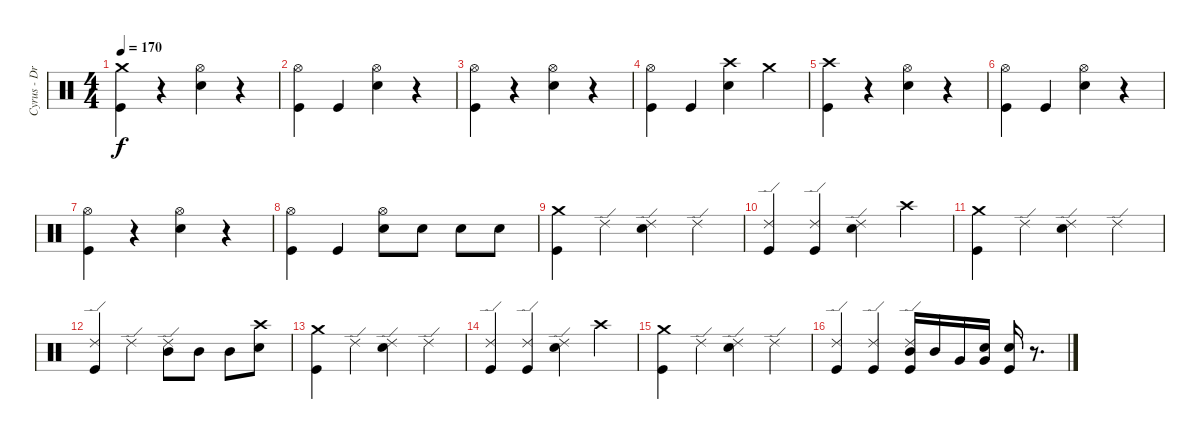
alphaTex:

\track ("Cyrus - Drums" "Cyrus - Dr") {instrument percussion}
\staff {score}
\articulation defaults
\ts (4 4)
\tempo 170
\clef neutral
\ks c
("Crash medium (hit)" "Kick (hit)").4{dy f} r.4 ("Hi-Hat (open)" "Electric Snare (hit)").4 r.4 |
("Hi-Hat (open)" "Kick (hit)").4 "Kick (hit)".4 ("Hi-Hat (open)" "Electric Snare (hit)").4 r.4 |
("Hi-Hat (open)" "Kick (hit)").4 r.4 ("Hi-Hat (open)" "Electric Snare (hit)").4 r.4 |
("Hi-Hat (open)" "Kick (hit)").4 "Kick (hit)".4 ("Crash high (hit)" "Electric Snare (hit)").4 "Crash medium (hit)".4 |
("Crash high (hit)" "Kick (hit)").4 r.4 ("Hi-Hat (open)" "Electric Snare (hit)").4 r.4 |
("Hi-Hat (open)" "Kick (hit)").4 "Kick (hit)".4 ("Hi-Hat (open)" "Electric Snare (hit)").4 r.4 |
("Hi-Hat (open)" "Kick (hit)").4 r.4 ("Hi-Hat (open)" "Electric Snare (hit)").4 r.4 |
("Hi-Hat (open)" "Kick (hit)").4 "Kick (hit)".4 ("Hi-Hat (open)" "Electric Snare (hit)").8 "Electric Snare (hit)".8 "Electric Snare (hit)".8 "Electric Snare (hit)".8 |
("Crash medium (hit)" "Kick (hit)").4 "Ride (edge) 2".4 ("Ride (edge) 2" "Electric Snare (hit)").4 "Ride (edge) 2".4 |
("Ride (edge) 2" "Kick (hit)").4 ("Ride (edge) 2" "Kick (hit)").4 ("Ride (edge) 2" "Electric Snare (hit)").4 "Crash high (hit)".4 |
("Crash medium (hit)" "Kick (hit)").4 "Ride (edge) 2".4 ("Ride (edge) 2" "Electric Snare (hit)").4 "Ride (edge) 2".4 |
("Ride (edge) 2" "Kick (hit)").4 "Ride (edge) 2".4 ("Ride (edge) 2" "Mid Tom (hit)").8 "Mid Tom (hit)".8 "Mid Tom (hit)".8 ("Crash high (hit)" "Electric Snare (hit)").8 |
("Crash medium (hit)" "Kick (hit)").4 "Ride (edge) 2".4 ("Ride (edge) 2" "Electric Snare (hit)").4 "Ride (edge) 2".4 |
("Ride (edge) 2" "Kick (hit)").4 ("Ride (edge) 2" "Kick (hit)").4 ("Ride (edge) 2" "Electric Snare (hit)").4 "Crash high (hit)".4 |
("Crash medium (hit)" "Kick (hit)").4 "Ride (edge) 2".4 ("Ride (edge) 2" "Electric Snare (hit)").4 "Ride (edge) 2".4 |
("Ride (edge) 2" "Kick (hit)").4 ("Ride (edge) 2" "Kick (hit)").4 ("Ride (edge) 2" "Mid Tom (hit)" "Kick (hit)").16 "Mid Tom (hit)".16 "Very Low Tom (hit)".16 ("Electric Snare (hit)" "Very Low Tom (hit)").16 ("Electric Snare (hit)" "Kick (hit)").16 r.8{d}
